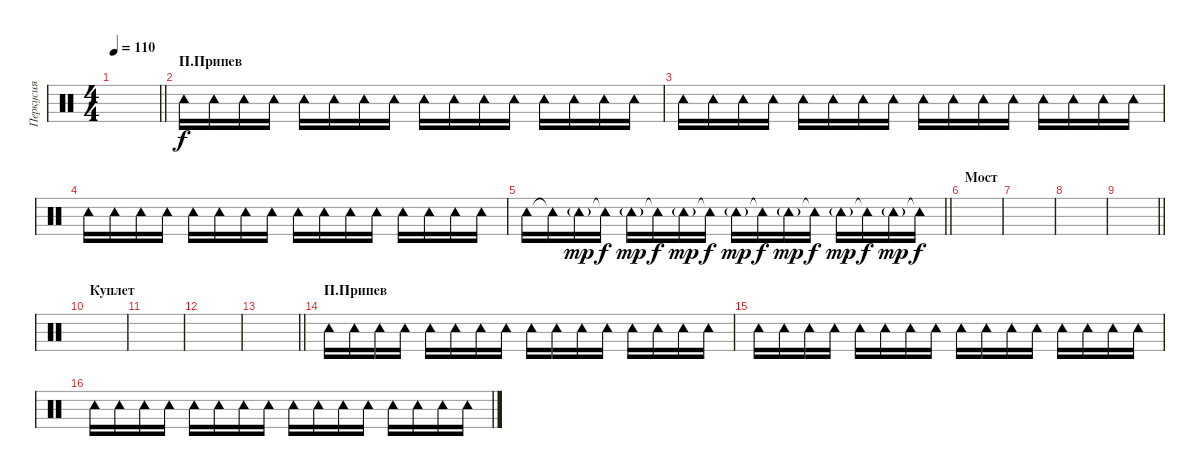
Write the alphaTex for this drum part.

\track ("Перкусия" "Перкусия") {instrument percussion}
\staff {score}
\articulation defaults
\ts (4 4)
\tempo 110
\clef neutral
\barLineRight lightlight
\ks c
|
\section ("" "П.Припев")
"Tambourine (hit)".16 "Tambourine (hit)".16 "Tambourine (hit)".16 "Tambourine (hit)".16 "Tambourine (hit)".16 "Tambourine (hit)".16 "Tambourine (hit)".16 "Tambourine (hit)".16 "Tambourine (hit)".16 "Tambourine (hit)".16 "Tambourine (hit)".16 "Tambourine (hit)".16 "Tambourine (hit)".16 "Tambourine (hit)".16 "Tambourine (hit)".16 "Tambourine (hit)".16 |
"Tambourine (hit)".16 "Tambourine (hit)".16 "Tambourine (hit)".16 "Tambourine (hit)".16 "Tambourine (hit)".16 "Tambourine (hit)".16 "Tambourine (hit)".16 "Tambourine (hit)".16 "Tambourine (hit)".16 "Tambourine (hit)".16 "Tambourine (hit)".16 "Tambourine (hit)".16 "Tambourine (hit)".16 "Tambourine (hit)".16 "Tambourine (hit)".16 "Tambourine (hit)".16 |
"Tambourine (hit)".16 "Tambourine (hit)".16 "Tambourine (hit)".16 "Tambourine (hit)".16 "Tambourine (hit)".16 "Tambourine (hit)".16 "Tambourine (hit)".16 "Tambourine (hit)".16 "Tambourine (hit)".16 "Tambourine (hit)".16 "Tambourine (hit)".16 "Tambourine (hit)".16 "Tambourine (hit)".16 "Tambourine (hit)".16 "Tambourine (hit)".16 "Tambourine (hit)".16 |
\barLineRight lightlight "Tambourine (hit)".16 "Tambourine (hit)"{t}.16 "Tambourine (hit)"{g}.16{dy mp} "Tambourine (hit)"{t}.16{dy f} "Tambourine (hit)"{g}.16{dy mp} "Tambourine (hit)"{t}.16{dy f} "Tambourine (hit)"{g}.16{dy mp} "Tambourine (hit)"{t}.16{dy f} "Tambourine (hit)"{g}.16{dy mp} "Tambourine (hit)"{t}.16{dy f} "Tambourine (hit)"{g}.16{dy mp} "Tambourine (hit)"{t}.16{dy f} "Tambourine (hit)"{g}.16{dy mp} "Tambourine (hit)"{t}.16{dy f} "Tambourine (hit)"{g}.16{dy mp} "Tambourine (hit)"{t}.16{dy f}
|
\section ("" "Мост")
|
|
|
\barLineRight lightlight
|
\section ("" "Куплет")
|
|
|
\barLineRight lightlight
|
\section ("" "П.Припев")
"Tambourine (hit)".16 "Tambourine (hit)".16 "Tambourine (hit)".16 "Tambourine (hit)".16 "Tambourine (hit)".16 "Tambourine (hit)".16 "Tambourine (hit)".16 "Tambourine (hit)".16 "Tambourine (hit)".16 "Tambourine (hit)".16 "Tambourine (hit)".16 "Tambourine (hit)".16 "Tambourine (hit)".16 "Tambourine (hit)".16 "Tambourine (hit)".16 "Tambourine (hit)".16 |
"Tambourine (hit)".16 "Tambourine (hit)".16 "Tambourine (hit)".16 "Tambourine (hit)".16 "Tambourine (hit)".16 "Tambourine (hit)".16 "Tambourine (hit)".16 "Tambourine (hit)".16 "Tambourine (hit)".16 "Tambourine (hit)".16 "Tambourine (hit)".16 "Tambourine (hit)".16 "Tambourine (hit)".16 "Tambourine (hit)".16 "Tambourine (hit)".16 "Tambourine (hit)".16 |
"Tambourine (hit)".16 "Tambourine (hit)".16 "Tambourine (hit)".16 "Tambourine (hit)".16 "Tambourine (hit)".16 "Tambourine (hit)".16 "Tambourine (hit)".16 "Tambourine (hit)".16 "Tambourine (hit)".16 "Tambourine (hit)".16 "Tambourine (hit)".16 "Tambourine (hit)".16 "Tambourine (hit)".16 "Tambourine (hit)".16 "Tambourine (hit)".16 "Tambourine (hit)".16
